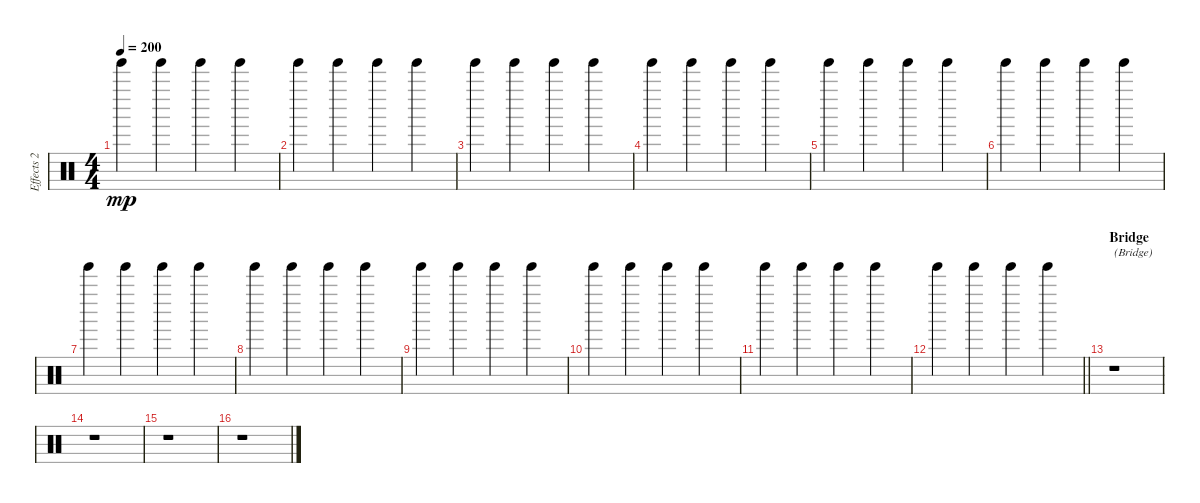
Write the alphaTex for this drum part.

\track ("Effects 2" "Effects 2") {instrument percussion}
\staff {score}
\articulation defaults
\ts (4 4)
\tempo 200
\clef neutral
\ks c "Tinkle Bell (hit)".4{dy mp} "Tinkle Bell (hit)".4 "Tinkle Bell (hit)".4 "Tinkle Bell (hit)".4
|
"Tinkle Bell (hit)".4 "Tinkle Bell (hit)".4 "Tinkle Bell (hit)".4 "Tinkle Bell (hit)".4 |
"Tinkle Bell (hit)".4 "Tinkle Bell (hit)".4 "Tinkle Bell (hit)".4 "Tinkle Bell (hit)".4 |
"Tinkle Bell (hit)".4 "Tinkle Bell (hit)".4 "Tinkle Bell (hit)".4 "Tinkle Bell (hit)".4 |
"Tinkle Bell (hit)".4 "Tinkle Bell (hit)".4 "Tinkle Bell (hit)".4 "Tinkle Bell (hit)".4 |
"Tinkle Bell (hit)".4 "Tinkle Bell (hit)".4 "Tinkle Bell (hit)".4 "Tinkle Bell (hit)".4 |
"Tinkle Bell (hit)".4 "Tinkle Bell (hit)".4 "Tinkle Bell (hit)".4 "Tinkle Bell (hit)".4 |
"Tinkle Bell (hit)".4 "Tinkle Bell (hit)".4 "Tinkle Bell (hit)".4 "Tinkle Bell (hit)".4 |
"Tinkle Bell (hit)".4 "Tinkle Bell (hit)".4 "Tinkle Bell (hit)".4 "Tinkle Bell (hit)".4 |
"Tinkle Bell (hit)".4 "Tinkle Bell (hit)".4 "Tinkle Bell (hit)".4 "Tinkle Bell (hit)".4 |
"Tinkle Bell (hit)".4 "Tinkle Bell (hit)".4 "Tinkle Bell (hit)".4 "Tinkle Bell (hit)".4 |
\barLineRight lightlight "Tinkle Bell (hit)".4 "Tinkle Bell (hit)".4 "Tinkle Bell (hit)".4 "Tinkle Bell (hit)".4
|
\section ("" "Bridge")
r.1{txt "(Bridge)"} |
r.1 |
r.1 |
r.1
